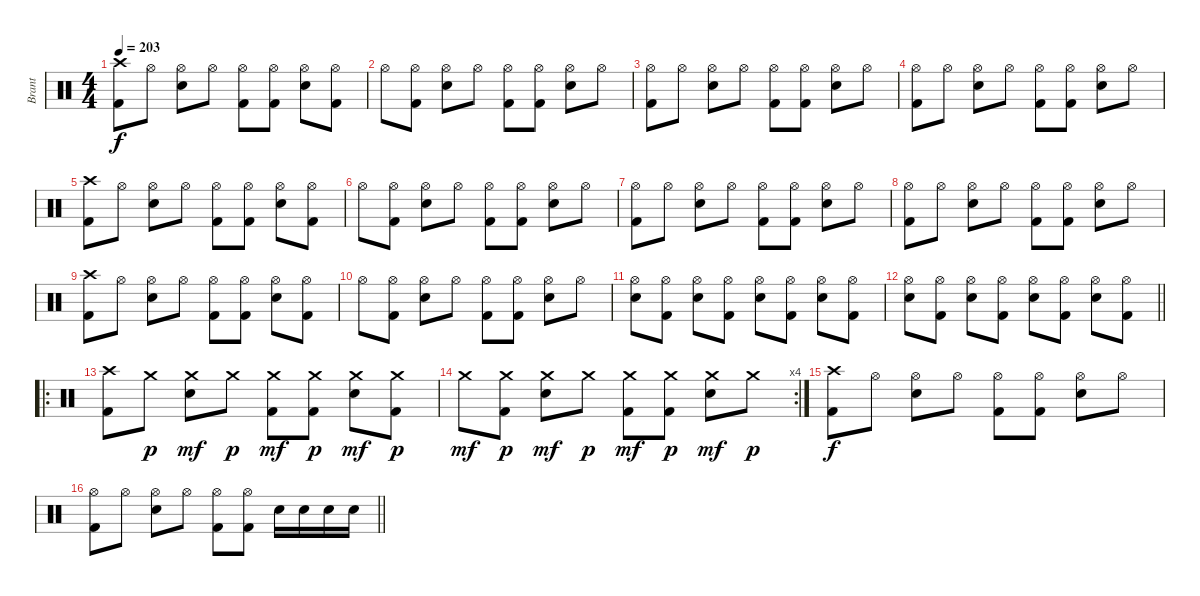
\track ("Brant" "Brant") {instrument percussion}
\staff {score}
\articulation defaults
\ts (4 4)
\tempo 203
\clef neutral
\ks c
("Crash high (hit)" "Kick (hit) 2").8{dy f} "Hi-Hat (open)".8 ("Hi-Hat (open)" "Electric Snare (hit)").8 "Hi-Hat (open)".8 ("Hi-Hat (open)" "Kick (hit) 2").8 ("Hi-Hat (open)" "Kick (hit) 2").8 ("Hi-Hat (open)" "Electric Snare (hit)").8 ("Hi-Hat (open)" "Kick (hit) 2").8 |
"Hi-Hat (open)".8 ("Hi-Hat (open)" "Kick (hit) 2").8 ("Hi-Hat (open)" "Electric Snare (hit)").8 "Hi-Hat (open)".8 ("Hi-Hat (open)" "Kick (hit) 2").8 ("Hi-Hat (open)" "Kick (hit) 2").8 ("Hi-Hat (open)" "Electric Snare (hit)").8 "Hi-Hat (open)".8 |
("Hi-Hat (open)" "Kick (hit) 2").8 "Hi-Hat (open)".8 ("Hi-Hat (open)" "Electric Snare (hit)").8 "Hi-Hat (open)".8 ("Hi-Hat (open)" "Kick (hit) 2").8 ("Hi-Hat (open)" "Kick (hit) 2").8 ("Hi-Hat (open)" "Electric Snare (hit)").8 "Hi-Hat (open)".8 |
("Hi-Hat (open)" "Kick (hit) 2").8 "Hi-Hat (open)".8 ("Hi-Hat (open)" "Electric Snare (hit)").8 "Hi-Hat (open)".8 ("Hi-Hat (open)" "Kick (hit) 2").8 ("Hi-Hat (open)" "Kick (hit) 2").8 ("Hi-Hat (open)" "Electric Snare (hit)").8 "Hi-Hat (open)".8 |
("Crash high (hit)" "Kick (hit) 2").8 "Hi-Hat (open)".8 ("Hi-Hat (open)" "Electric Snare (hit)").8 "Hi-Hat (open)".8 ("Hi-Hat (open)" "Kick (hit) 2").8 ("Hi-Hat (open)" "Kick (hit) 2").8 ("Hi-Hat (open)" "Electric Snare (hit)").8 ("Hi-Hat (open)" "Kick (hit) 2").8 |
"Hi-Hat (open)".8 ("Hi-Hat (open)" "Kick (hit) 2").8 ("Hi-Hat (open)" "Electric Snare (hit)").8 "Hi-Hat (open)".8 ("Hi-Hat (open)" "Kick (hit) 2").8 ("Hi-Hat (open)" "Kick (hit) 2").8 ("Hi-Hat (open)" "Electric Snare (hit)").8 "Hi-Hat (open)".8 |
("Hi-Hat (open)" "Kick (hit) 2").8 "Hi-Hat (open)".8 ("Hi-Hat (open)" "Electric Snare (hit)").8 "Hi-Hat (open)".8 ("Hi-Hat (open)" "Kick (hit) 2").8 ("Hi-Hat (open)" "Kick (hit) 2").8 ("Hi-Hat (open)" "Electric Snare (hit)").8 "Hi-Hat (open)".8 |
("Hi-Hat (open)" "Kick (hit) 2").8 "Hi-Hat (open)".8 ("Hi-Hat (open)" "Electric Snare (hit)").8 "Hi-Hat (open)".8 ("Hi-Hat (open)" "Kick (hit) 2").8 ("Hi-Hat (open)" "Kick (hit) 2").8 ("Hi-Hat (open)" "Electric Snare (hit)").8 "Hi-Hat (open)".8 |
("Crash high (hit)" "Kick (hit) 2").8 "Hi-Hat (open)".8 ("Hi-Hat (open)" "Electric Snare (hit)").8 "Hi-Hat (open)".8 ("Hi-Hat (open)" "Kick (hit) 2").8 ("Hi-Hat (open)" "Kick (hit) 2").8 ("Hi-Hat (open)" "Electric Snare (hit)").8 ("Hi-Hat (open)" "Kick (hit) 2").8 |
"Hi-Hat (open)".8 ("Hi-Hat (open)" "Kick (hit) 2").8 ("Hi-Hat (open)" "Electric Snare (hit)").8 "Hi-Hat (open)".8 ("Hi-Hat (open)" "Kick (hit) 2").8 ("Hi-Hat (open)" "Kick (hit) 2").8 ("Hi-Hat (open)" "Electric Snare (hit)").8 "Hi-Hat (open)".8 |
("Hi-Hat (open)" "Electric Snare (hit)").8 ("Hi-Hat (open)" "Kick (hit) 2").8 ("Hi-Hat (open)" "Electric Snare (hit)").8 ("Hi-Hat (open)" "Kick (hit) 2").8 ("Hi-Hat (open)" "Electric Snare (hit)").8 ("Hi-Hat (open)" "Kick (hit) 2").8 ("Hi-Hat (open)" "Electric Snare (hit)").8 ("Hi-Hat (open)" "Kick (hit) 2").8 |
\barLineRight lightlight
("Hi-Hat (open)" "Electric Snare (hit)").8 ("Hi-Hat (open)" "Kick (hit) 2").8 ("Hi-Hat (open)" "Electric Snare (hit)").8 ("Hi-Hat (open)" "Kick (hit) 2").8 ("Hi-Hat (open)" "Electric Snare (hit)").8 ("Hi-Hat (open)" "Kick (hit) 2").8 ("Hi-Hat (open)" "Electric Snare (hit)").8 ("Hi-Hat (open)" "Kick (hit) 2").8 |
\ro
\section ("" "")
("Crash high (hit)" "Kick (hit) 2").8 "Crash medium (hit)".8{dy p} ("Crash medium (hit)" "Electric Snare (hit)").8{dy mf} "Crash medium (hit)".8{dy p} ("Crash medium (hit)" "Kick (hit) 2").8{dy mf} ("Crash medium (hit)" "Kick (hit) 2").8{dy p} ("Crash medium (hit)" "Electric Snare (hit)").8{dy mf} ("Crash medium (hit)" "Kick (hit) 2").8{dy p} |
\rc 4 "Crash medium (hit)".8{dy mf}
("Crash medium (hit)" "Kick (hit) 2").8{dy p} ("Crash medium (hit)" "Electric Snare (hit)").8{dy mf} "Crash medium (hit)".8{dy p} ("Crash medium (hit)" "Kick (hit) 2").8{dy mf} ("Crash medium (hit)" "Kick (hit) 2").8{dy p} ("Crash medium (hit)" "Electric Snare (hit)").8{dy mf} "Crash medium (hit)".8{dy p} |
("Crash high (hit)" "Kick (hit) 2").8{dy f} "Hi-Hat (open)".8 ("Hi-Hat (open)" "Electric Snare (hit)").8 "Hi-Hat (open)".8 ("Hi-Hat (open)" "Kick (hit) 2").8 ("Hi-Hat (open)" "Kick (hit) 2").8 ("Hi-Hat (open)" "Electric Snare (hit)").8 "Hi-Hat (open)".8 |
\barLineRight lightlight
("Hi-Hat (open)" "Kick (hit) 2").8 "Hi-Hat (open)".8 ("Hi-Hat (open)" "Electric Snare (hit)").8 "Hi-Hat (open)".8 ("Hi-Hat (open)" "Kick (hit) 2").8 ("Hi-Hat (open)" "Kick (hit) 2").8 "Electric Snare (hit)".16 "Electric Snare (hit)".16 "Electric Snare (hit)".16 "Electric Snare (hit)".16
